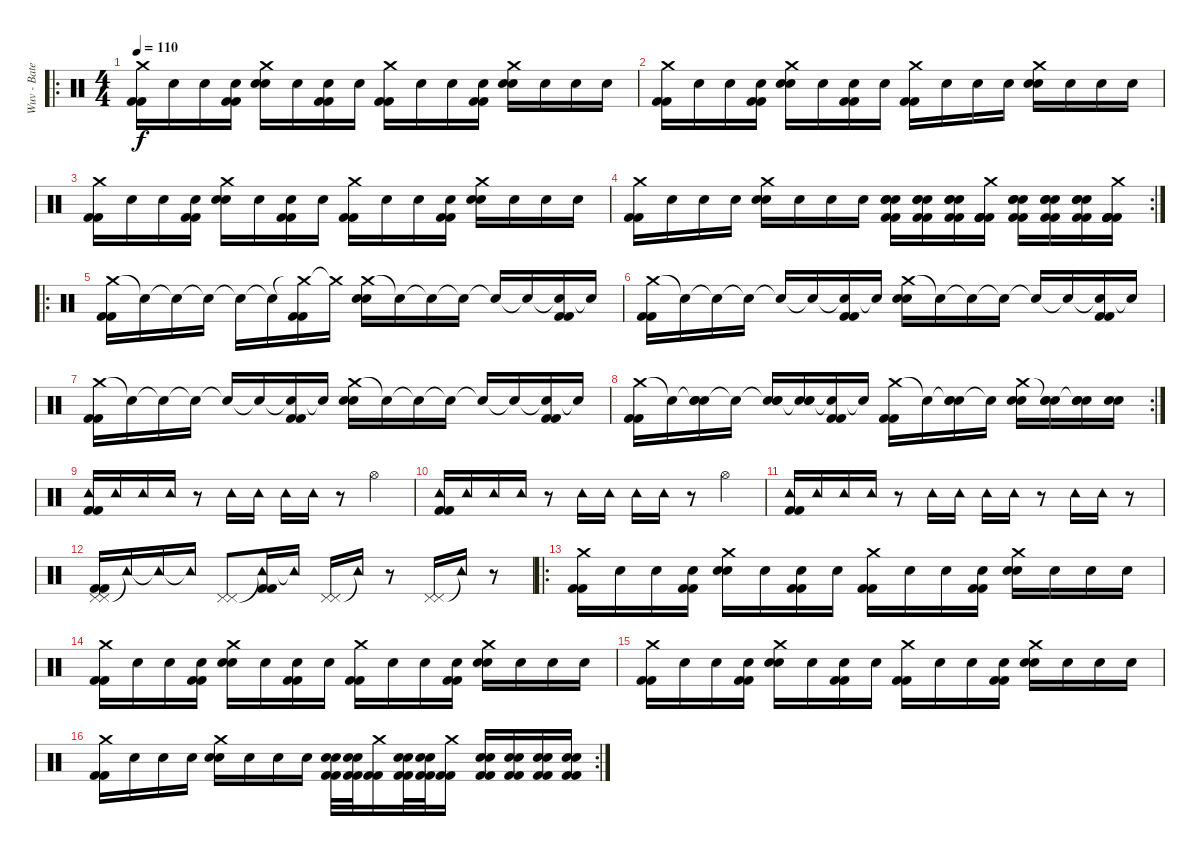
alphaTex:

\track ("Wuv - Bateria" "Wuv - Bate") {instrument percussion}
\staff {score}
\articulation defaults
\ro
\ts (4 4)
\tempo 110
\clef neutral
\ks c
("Crash medium (hit)" "Kick (hit) 2" "Kick (hit) 2").16{dy f} "Snare (hit)".16 "Snare (hit)".16 ("Snare (hit)" "Kick (hit) 2" "Kick (hit) 2").16 ("Crash medium (hit)" "Electric Snare (hit)" "Electric Snare (hit)").16 "Snare (hit)".16 ("Snare (hit)" "Kick (hit) 2" "Kick (hit) 2").16 "Snare (hit)".16 ("Crash medium (hit)" "Kick (hit) 2" "Kick (hit) 2").16 "Snare (hit)".16 "Snare (hit)".16 ("Snare (hit)" "Kick (hit) 2" "Kick (hit) 2").16 ("Crash medium (hit)" "Electric Snare (hit)" "Electric Snare (hit)").16 "Snare (hit)".16 "Snare (hit)".16 "Snare (hit)".16 |
("Crash medium (hit)" "Kick (hit) 2" "Kick (hit) 2").16 "Snare (hit)".16 "Snare (hit)".16 ("Snare (hit)" "Kick (hit) 2" "Kick (hit) 2").16 ("Crash medium (hit)" "Electric Snare (hit)" "Electric Snare (hit)").16 "Snare (hit)".16 ("Snare (hit)" "Kick (hit) 2" "Kick (hit) 2").16 "Snare (hit)".16 ("Crash medium (hit)" "Kick (hit) 2" "Kick (hit) 2").16 "Snare (hit)".16 "Snare (hit)".16 "Snare (hit)".16 ("Crash medium (hit)" "Electric Snare (hit)" "Electric Snare (hit)").16 "Snare (hit)".16 "Snare (hit)".16 "Snare (hit)".16 |
("Crash medium (hit)" "Kick (hit) 2" "Kick (hit) 2").16 "Snare (hit)".16 "Snare (hit)".16 ("Snare (hit)" "Kick (hit) 2" "Kick (hit) 2").16 ("Crash medium (hit)" "Electric Snare (hit)" "Electric Snare (hit)").16 "Snare (hit)".16 ("Snare (hit)" "Kick (hit) 2" "Kick (hit) 2").16 "Snare (hit)".16 ("Crash medium (hit)" "Kick (hit) 2" "Kick (hit) 2").16 "Snare (hit)".16 "Snare (hit)".16 ("Snare (hit)" "Kick (hit) 2" "Kick (hit) 2").16 ("Crash medium (hit)" "Electric Snare (hit)" "Electric Snare (hit)").16 "Snare (hit)".16 "Snare (hit)".16 "Snare (hit)".16 |
\rc 2
("Crash medium (hit)" "Kick (hit) 2" "Kick (hit) 2").16 "Snare (hit)".16 "Snare (hit)".16 "Snare (hit)".16 ("Crash medium (hit)" "Electric Snare (hit)" "Electric Snare (hit)").16 "Snare (hit)".16 "Snare (hit)".16 "Snare (hit)".16 ("Snare (hit)" "Electric Snare (hit)" "Electric Snare (hit)" "Kick (hit) 2" "Kick (hit) 2").16 ("Snare (hit)" "Electric Snare (hit)" "Electric Snare (hit)" "Kick (hit) 2" "Kick (hit) 2").16 ("Snare (hit)" "Electric Snare (hit)" "Electric Snare (hit)" "Kick (hit) 2" "Kick (hit) 2").16 ("Crash medium (hit)" "Kick (hit) 2" "Kick (hit) 2" "Kick (hit) 2" "Kick (hit) 2").16 ("Snare (hit)" "Electric Snare (hit)" "Electric Snare (hit)" "Kick (hit) 2" "Kick (hit) 2").16 ("Snare (hit)" "Electric Snare (hit)" "Electric Snare (hit)" "Kick (hit) 2" "Kick (hit) 2").16 ("Snare (hit)" "Electric Snare (hit)" "Electric Snare (hit)" "Kick (hit) 2" "Kick (hit) 2").16 ("Crash medium (hit)" "Kick (hit) 2" "Kick (hit) 2" "Kick (hit) 2" "Kick (hit) 2").16 |
\ro
("Crash medium (hit)" "Kick (hit) 2" "Kick (hit) 2").16 "Snare (hit)"{t}.16 "Snare (hit)"{t}.16 "Snare (hit)"{t}.16 "Snare (hit)"{t}.16 "Snare (hit)"{t}.16 ("Crash medium (hit)"{t} "Kick (hit) 2" "Kick (hit) 2").16 "Crash medium (hit)"{t}.16 ("Crash medium (hit)" "Electric Snare (hit)" "Electric Snare (hit)").16 "Snare (hit)"{t}.16 "Snare (hit)"{t}.16 "Snare (hit)"{t}.16 "Snare (hit)"{t}.16 "Snare (hit)"{t}.16 ("Snare (hit)"{t} "Kick (hit) 2" "Kick (hit) 2").16 "Snare (hit)"{t}.16 |
("Crash medium (hit)" "Kick (hit) 2" "Kick (hit) 2").16 "Snare (hit)"{t}.16 "Snare (hit)"{t}.16 "Snare (hit)"{t}.16 "Snare (hit)"{t}.16 "Snare (hit)"{t}.16 ("Snare (hit)"{t} "Kick (hit) 2" "Kick (hit) 2").16 "Snare (hit)"{t}.16 ("Crash medium (hit)" "Electric Snare (hit)" "Electric Snare (hit)").16 "Snare (hit)"{t}.16 "Snare (hit)"{t}.16 "Snare (hit)"{t}.16 "Snare (hit)"{t}.16 "Snare (hit)"{t}.16 ("Snare (hit)"{t} "Kick (hit) 2" "Kick (hit) 2").16 "Snare (hit)"{t}.16 |
("Crash medium (hit)" "Kick (hit) 2" "Kick (hit) 2").16 "Snare (hit)"{t}.16 "Snare (hit)"{t}.16 "Snare (hit)"{t}.16 "Snare (hit)"{t}.16 "Snare (hit)"{t}.16 ("Snare (hit)"{t} "Kick (hit) 2" "Kick (hit) 2").16 "Snare (hit)"{t}.16 ("Crash medium (hit)" "Electric Snare (hit)" "Electric Snare (hit)").16 "Snare (hit)"{t}.16 "Snare (hit)"{t}.16 "Snare (hit)"{t}.16 "Snare (hit)"{t}.16 "Snare (hit)"{t}.16 ("Snare (hit)"{t} "Kick (hit) 2" "Kick (hit) 2").16 "Snare (hit)"{t}.16 |
\rc 2
("Crash medium (hit)" "Kick (hit) 2" "Kick (hit) 2").16 "Snare (hit)"{t}.16 ("Snare (hit)"{t} "Electric Snare (hit)" "Electric Snare (hit)").16 "Snare (hit)"{t}.16 ("Snare (hit)"{t} "Electric Snare (hit)" "Electric Snare (hit)").16 ("Snare (hit)"{t} "Electric Snare (hit)" "Electric Snare (hit)").16 ("Snare (hit)"{t} "Kick (hit) 2" "Kick (hit) 2").16 "Snare (hit)"{t}.16 ("Crash medium (hit)" "Kick (hit) 2" "Kick (hit) 2").16 "Snare (hit)"{t}.16 ("Snare (hit)"{t} "Electric Snare (hit)" "Electric Snare (hit)").16 "Snare (hit)"{t}.16 ("Crash medium (hit)" "Electric Snare (hit)" "Electric Snare (hit)").16 ("Snare (hit)"{t} "Electric Snare (hit)" "Electric Snare (hit)").16 ("Snare (hit)"{t} "Electric Snare (hit)" "Electric Snare (hit)").16 ("Electric Snare (hit)" "Electric Snare (hit)").16 |
("Tambourine (hit)" "Kick (hit) 2" "Kick (hit) 2").16 "Tambourine (hit)".16 "Tambourine (hit)".16 "Tambourine (hit)".16 r.8 "Tambourine (hit)".16 "Tambourine (hit)".16 "Tambourine (hit)".16 "Tambourine (hit)".16 r.8 "Hi-Hat (open)".4 |
("Tambourine (hit)" "Kick (hit) 2" "Kick (hit) 2").16 "Tambourine (hit)".16 "Tambourine (hit)".16 "Tambourine (hit)".16 r.8 "Tambourine (hit)".16 "Tambourine (hit)".16 "Tambourine (hit)".16 "Tambourine (hit)".16 r.8 "Hi-Hat (open)".4 |
("Tambourine (hit)" "Kick (hit) 2" "Kick (hit) 2").16 "Tambourine (hit)".16 "Tambourine (hit)".16 "Tambourine (hit)".16 r.8 "Tambourine (hit)".16 "Tambourine (hit)".16 "Tambourine (hit)".16 "Tambourine (hit)".16 r.8 "Tambourine (hit)".16 "Tambourine (hit)".16 r.8 |
("Pedal Hi-Hat (hit)" "Pedal Hi-Hat (hit)" "Kick (hit) 2" "Kick (hit) 2").16 "Tambourine (hit)"{t}.16 "Tambourine (hit)"{t}.16 "Tambourine (hit)"{t}.16 ("Pedal Hi-Hat (hit)" "Pedal Hi-Hat (hit)").8 ("Tambourine (hit)"{t} "Kick (hit) 2" "Kick (hit) 2").16 "Tambourine (hit)"{t}.16 ("Pedal Hi-Hat (hit)" "Pedal Hi-Hat (hit)").16 "Tambourine (hit)"{t}.16 r.8 ("Pedal Hi-Hat (hit)" "Pedal Hi-Hat (hit)").16 "Tambourine (hit)"{t}.16 r.8 |
\ro
("Crash medium (hit)" "Kick (hit) 2" "Kick (hit) 2").16 "Snare (hit)".16 "Snare (hit)".16 ("Snare (hit)" "Kick (hit) 2" "Kick (hit) 2").16 ("Crash medium (hit)" "Electric Snare (hit)" "Electric Snare (hit)").16 "Snare (hit)".16 ("Snare (hit)" "Kick (hit) 2" "Kick (hit) 2").16 "Snare (hit)".16 ("Crash medium (hit)" "Kick (hit) 2" "Kick (hit) 2").16 "Snare (hit)".16 "Snare (hit)".16 ("Snare (hit)" "Kick (hit) 2" "Kick (hit) 2").16 ("Crash medium (hit)" "Electric Snare (hit)" "Electric Snare (hit)").16 "Snare (hit)".16 "Snare (hit)".16 "Snare (hit)".16 |
("Crash medium (hit)" "Kick (hit) 2" "Kick (hit) 2").16 "Snare (hit)".16 "Snare (hit)".16 ("Snare (hit)" "Kick (hit) 2" "Kick (hit) 2").16 ("Crash medium (hit)" "Electric Snare (hit)" "Electric Snare (hit)").16 "Snare (hit)".16 ("Snare (hit)" "Kick (hit) 2" "Kick (hit) 2").16 "Snare (hit)".16 ("Crash medium (hit)" "Kick (hit) 2" "Kick (hit) 2").16 "Snare (hit)".16 "Snare (hit)".16 ("Snare (hit)" "Kick (hit) 2" "Kick (hit) 2").16 ("Crash medium (hit)" "Electric Snare (hit)" "Electric Snare (hit)").16 "Snare (hit)".16 "Snare (hit)".16 "Snare (hit)".16 |
("Crash medium (hit)" "Kick (hit) 2" "Kick (hit) 2").16 "Snare (hit)".16 "Snare (hit)".16 ("Snare (hit)" "Kick (hit) 2" "Kick (hit) 2").16 ("Crash medium (hit)" "Electric Snare (hit)" "Electric Snare (hit)").16 "Snare (hit)".16 ("Snare (hit)" "Kick (hit) 2" "Kick (hit) 2").16 "Snare (hit)".16 ("Crash medium (hit)" "Kick (hit) 2" "Kick (hit) 2").16 "Snare (hit)".16 "Snare (hit)".16 ("Snare (hit)" "Kick (hit) 2" "Kick (hit) 2").16 ("Crash medium (hit)" "Electric Snare (hit)" "Electric Snare (hit)").16 "Snare (hit)".16 "Snare (hit)".16 "Snare (hit)".16 |
\rc 2
("Crash medium (hit)" "Kick (hit) 2" "Kick (hit) 2").16 "Snare (hit)".16 "Snare (hit)".16 "Snare (hit)".16 ("Crash medium (hit)" "Electric Snare (hit)" "Electric Snare (hit)").16 "Snare (hit)".16 "Snare (hit)".16 "Snare (hit)".16 ("Kick (hit) 2" "Kick (hit) 2" "Electric Snare (hit)" "Electric Snare (hit)").32 ("Kick (hit) 2" "Kick (hit) 2" "Electric Snare (hit)" "Electric Snare (hit)").32 ("Crash medium (hit)" "Kick (hit) 2" "Kick (hit) 2").16 ("Kick (hit) 2" "Kick (hit) 2" "Electric Snare (hit)" "Electric Snare (hit)").32 ("Kick (hit) 2" "Kick (hit) 2" "Electric Snare (hit)" "Electric Snare (hit)").32 ("Crash medium (hit)" "Kick (hit) 2" "Kick (hit) 2").16 ("Kick (hit) 2" "Kick (hit) 2" "Electric Snare (hit)" "Electric Snare (hit)").16 ("Kick (hit) 2" "Kick (hit) 2" "Electric Snare (hit)" "Electric Snare (hit)").16 ("Kick (hit) 2" "Kick (hit) 2" "Electric Snare (hit)" "Electric Snare (hit)").16 ("Kick (hit) 2" "Kick (hit) 2" "Electric Snare (hit)" "Electric Snare (hit)").16
